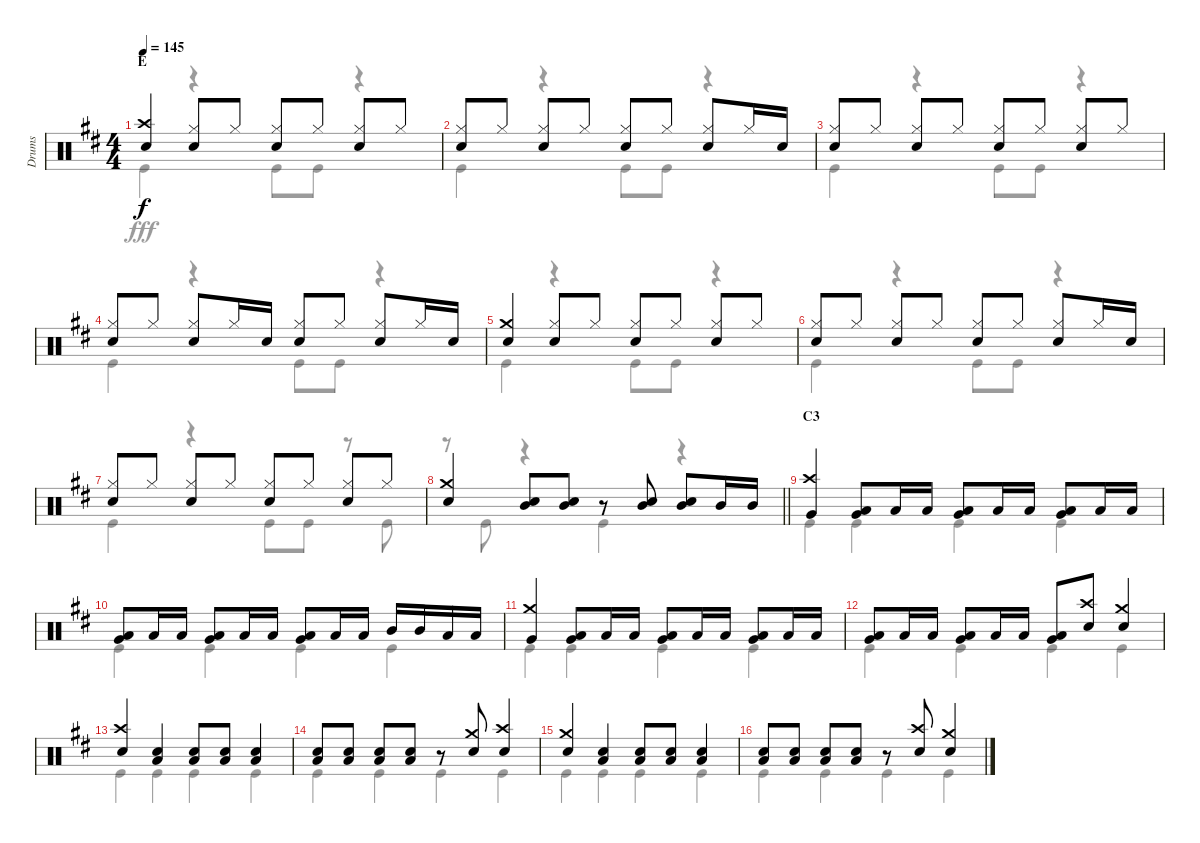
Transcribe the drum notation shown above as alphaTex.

\track ("Drums" "Drums") {instrument percussion}
\staff {score}
\articulation defaults
\voice
\ts (4 4)
\section ("" "E")
\tempo 145
\clef neutral
\ks d
("Crash high (hit)" "Snare (hit) 2").4{dy f} ("Hi-Hat (closed)" "Snare (hit) 2").8 "Hi-Hat (closed)".8 ("Hi-Hat (closed)" "Snare (hit) 2").8 "Hi-Hat (closed)".8 ("Hi-Hat (closed)" "Snare (hit) 2").8 "Hi-Hat (closed)".8 |
("Hi-Hat (closed)" "Snare (hit) 2").8 "Hi-Hat (closed)".8 ("Hi-Hat (closed)" "Snare (hit) 2").8 "Hi-Hat (closed)".8 ("Hi-Hat (closed)" "Snare (hit) 2").8 "Hi-Hat (closed)".8 ("Hi-Hat (closed)" "Snare (hit) 2").8 "Hi-Hat (closed)".16 "Snare (hit) 2".16 |
("Hi-Hat (closed)" "Snare (hit) 2").8 "Hi-Hat (closed)".8 ("Hi-Hat (closed)" "Snare (hit) 2").8 "Hi-Hat (closed)".8 ("Hi-Hat (closed)" "Snare (hit) 2").8 "Hi-Hat (closed)".8 ("Hi-Hat (closed)" "Snare (hit) 2").8 "Hi-Hat (closed)".8 |
("Hi-Hat (closed)" "Snare (hit) 2").8 "Hi-Hat (closed)".8 ("Hi-Hat (closed)" "Snare (hit) 2").8 "Hi-Hat (closed)".16 "Snare (hit) 2".16 ("Hi-Hat (closed)" "Snare (hit) 2").8 "Hi-Hat (closed)".8 ("Hi-Hat (closed)" "Snare (hit) 2").8 "Hi-Hat (closed)".16 "Snare (hit) 2".16 |
("Crash medium (hit)" "Snare (hit) 2").4 ("Hi-Hat (closed)" "Snare (hit) 2").8 "Hi-Hat (closed)".8 ("Hi-Hat (closed)" "Snare (hit) 2").8 "Hi-Hat (closed)".8 ("Hi-Hat (closed)" "Snare (hit) 2").8 "Hi-Hat (closed)".8 |
("Hi-Hat (closed)" "Snare (hit) 2").8 "Hi-Hat (closed)".8 ("Hi-Hat (closed)" "Snare (hit) 2").8 "Hi-Hat (closed)".8 ("Hi-Hat (closed)" "Snare (hit) 2").8 "Hi-Hat (closed)".8 ("Hi-Hat (closed)" "Snare (hit) 2").8 "Hi-Hat (closed)".16 "Snare (hit) 2".16 |
("Hi-Hat (closed)" "Snare (hit) 2").8 "Hi-Hat (closed)".8 ("Hi-Hat (closed)" "Snare (hit) 2").8 "Hi-Hat (closed)".8 ("Hi-Hat (closed)" "Snare (hit) 2").8 "Hi-Hat (closed)".8 ("Hi-Hat (closed)" "Snare (hit) 2").8 "Hi-Hat (closed)".8 |
\barLineRight lightlight
("Crash medium (hit)" "Snare (hit) 2").4 ("Mid Tom (hit)" "Snare (hit) 2").8 ("Mid Tom (hit)" "Snare (hit) 2").8 r.8 ("Mid Tom (hit)" "Snare (hit) 2").8 ("Mid Tom (hit)" "Snare (hit) 2").8 "Mid Tom (hit)".16 "Mid Tom (hit)".16 |
\section ("" "C3")
("Crash high (hit)" "Very Low Tom (hit)").4 ("Low Tom (hit)" "Very Low Tom (hit)").8 "Low Tom (hit)".16 "Low Tom (hit)".16 ("Low Tom (hit)" "Very Low Tom (hit)").8 "Low Tom (hit)".16 "Low Tom (hit)".16 ("Low Tom (hit)" "Very Low Tom (hit)").8 "Low Tom (hit)".16 "Low Tom (hit)".16 |
("Low Tom (hit)" "Very Low Tom (hit)").8 "Low Tom (hit)".16 "Low Tom (hit)".16 ("Low Tom (hit)" "Very Low Tom (hit)").8 "Low Tom (hit)".16 "Low Tom (hit)".16 ("Low Tom (hit)" "Very Low Tom (hit)").8 "Low Tom (hit)".16 "Low Tom (hit)".16 "Mid Tom (hit)".16 "Mid Tom (hit)".16 "Low Tom (hit)".16 "Low Tom (hit)".16 |
("Crash medium (hit)" "Very Low Tom (hit)").4 ("Low Tom (hit)" "Very Low Tom (hit)").8 "Low Tom (hit)".16 "Low Tom (hit)".16 ("Low Tom (hit)" "Very Low Tom (hit)").8 "Low Tom (hit)".16 "Low Tom (hit)".16 ("Low Tom (hit)" "Very Low Tom (hit)").8 "Low Tom (hit)".16 "Low Tom (hit)".16 |
("Low Tom (hit)" "Very Low Tom (hit)").8 "Low Tom (hit)".16 "Low Tom (hit)".16 ("Low Tom (hit)" "Very Low Tom (hit)").8 "Low Tom (hit)".16 "Low Tom (hit)".16 ("Low Tom (hit)" "Very Low Tom (hit)").8 ("Crash high (hit)" "Snare (hit) 2").8 ("Crash medium (hit)" "Snare (hit) 2").4 |
("Crash high (hit)" "Snare (hit) 2").4 ("Snare (hit) 2" "Low Tom (hit)").4 ("Snare (hit) 2" "Low Tom (hit)").8 ("Snare (hit) 2" "Low Tom (hit)").8 ("Snare (hit) 2" "Low Tom (hit)").4 |
("Snare (hit) 2" "Low Tom (hit)").8 ("Snare (hit) 2" "Low Tom (hit)").8 ("Snare (hit) 2" "Low Tom (hit)").8 ("Snare (hit) 2" "Low Tom (hit)").8 r.8 ("Crash medium (hit)" "Snare (hit) 2").8 ("Crash high (hit)" "Snare (hit) 2").4 |
("Crash medium (hit)" "Snare (hit) 2").4 ("Snare (hit) 2" "Low Tom (hit)").4 ("Snare (hit) 2" "Low Tom (hit)").8 ("Snare (hit) 2" "Low Tom (hit)").8 ("Snare (hit) 2" "Low Tom (hit)").4 |
("Snare (hit) 2" "Low Tom (hit)").8 ("Snare (hit) 2" "Low Tom (hit)").8 ("Snare (hit) 2" "Low Tom (hit)").8 ("Snare (hit) 2" "Low Tom (hit)").8 r.8 ("Crash high (hit)" "Snare (hit) 2").8 ("Crash medium (hit)" "Snare (hit) 2").4
\voice
\clef neutral
\ottava regular
\simile none
\ks d "Kick (hit)".4{dy fff}
r.4 "Kick (hit)".8 "Kick (hit)".8 r.4 |
"Kick (hit)".4 r.4 "Kick (hit)".8 "Kick (hit)".8 r.4 |
"Kick (hit)".4 r.4 "Kick (hit)".8 "Kick (hit)".8 r.4 |
"Kick (hit)".4 r.4 "Kick (hit)".8 "Kick (hit)".8 r.4 |
"Kick (hit)".4 r.4 "Kick (hit)".8 "Kick (hit)".8 r.4 |
"Kick (hit)".4 r.4 "Kick (hit)".8 "Kick (hit)".8 r.4 |
"Kick (hit)".4 r.4 "Kick (hit)".8 "Kick (hit)".8 r.8 "Kick (hit)".8 |
\barLineRight lightlight
r.8 "Kick (hit)".8 r.4 "Kick (hit)".4 r.4 |
"Kick (hit)".4 "Kick (hit)".4 "Kick (hit)".4 "Kick (hit)".4 |
"Kick (hit)".4 "Kick (hit)".4 "Kick (hit)".4 "Kick (hit)".4 |
"Kick (hit)".4 "Kick (hit)".4 "Kick (hit)".4 "Kick (hit)".4 |
"Kick (hit)".4 "Kick (hit)".4 "Kick (hit)".4 "Kick (hit)".4 |
"Kick (hit)".4 "Kick (hit)".4 "Kick (hit)".4 "Kick (hit)".4 |
"Kick (hit)".4 "Kick (hit)".4 "Kick (hit)".4 "Kick (hit)".4 |
"Kick (hit)".4 "Kick (hit)".4 "Kick (hit)".4 "Kick (hit)".4 |
"Kick (hit)".4 "Kick (hit)".4 "Kick (hit)".4 "Kick (hit)".4
